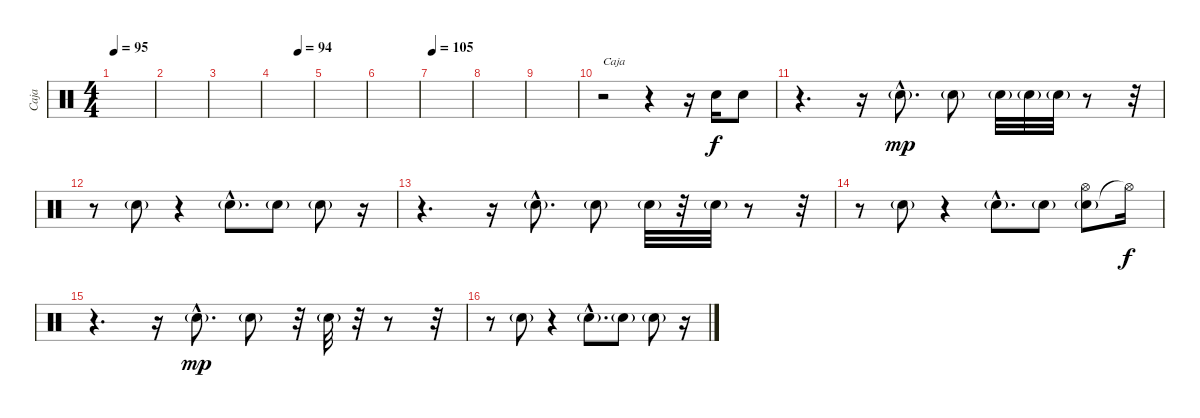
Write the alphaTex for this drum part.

\track ("Caja" "Caja") {instrument percussion}
\staff {score}
\articulation defaults
\ts (4 4)
\tempo 95
\clef neutral
\ks c
|
|
|
\tempo (94 0.625)
|
|
|
\tempo 105
|
|
|
r.2{txt "Caja"} r.4 r.16 "Electric Snare (hit)".16 "Electric Snare (hit)".8 |
r.4{d} r.16 "Electric Snare (hit)"{g hac}.8{d dy mp} "Electric Snare (hit)"{g}.8 "Electric Snare (hit)"{g}.32 "Electric Snare (hit)"{g}.32 "Electric Snare (hit)"{g}.32 r.8 r.32 |
r.8 "Electric Snare (hit)"{g}.8 r.4 "Electric Snare (hit)"{g hac}.8{d} "Electric Snare (hit)"{g}.8 "Electric Snare (hit)"{g}.8 r.16 |
r.4{d} r.16 "Electric Snare (hit)"{g hac}.8{d} "Electric Snare (hit)"{g}.8 "Electric Snare (hit)"{g}.32 r.32 "Electric Snare (hit)"{g}.32 r.8 r.32 |
r.8 "Electric Snare (hit)"{g}.8 r.4 "Electric Snare (hit)"{g hac}.8{d} "Electric Snare (hit)"{g}.8 ("Electric Snare (hit)"{g} "Hi-Hat (open)").8 "Hi-Hat (open)"{t}.16{dy f} |
r.4{d} r.16 "Electric Snare (hit)"{g hac}.8{d dy mp} "Electric Snare (hit)"{g}.8 r.32 "Electric Snare (hit)"{g}.32 r.32 r.8 r.32 |
r.8 "Electric Snare (hit)"{g}.8 r.4 "Electric Snare (hit)"{g hac}.8{d} "Electric Snare (hit)"{g}.8 "Electric Snare (hit)"{g}.8 r.16
